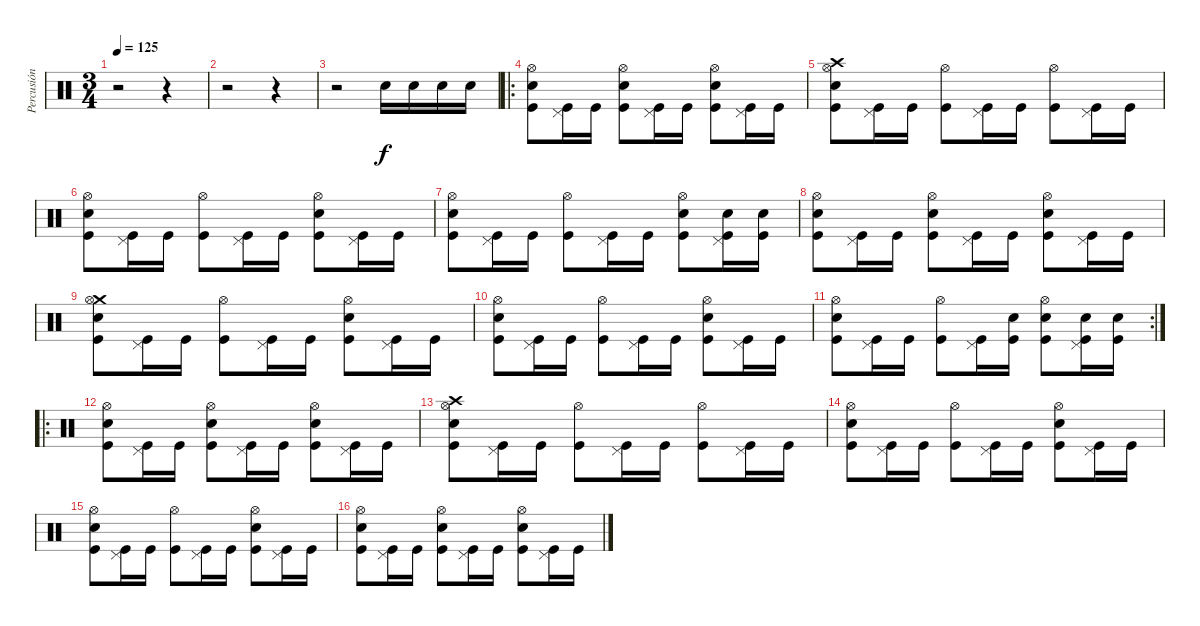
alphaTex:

\track ("Percusión" "Percusión") {instrument percussion}
\staff {score}
\articulation defaults
\ts (3 4)
\tempo 125
\clef neutral
\ks c
r.2{dy f} r.4 |
r.2 r.4 |
r.2 "Electric Snare (hit)".16 "Electric Snare (hit)".16 "Electric Snare (hit)".16 "Electric Snare (hit)".16 |
\ro
("Electric Snare (hit)" "Kick (hit)" "Hi-Hat (open)").8 ("Kick (hit)" "Pedal Hi-Hat (hit)").16 "Kick (hit)".16 ("Electric Snare (hit)" "Kick (hit)" "Hi-Hat (open)").8 ("Kick (hit)" "Pedal Hi-Hat (hit)").16 "Kick (hit)".16 ("Electric Snare (hit)" "Kick (hit)" "Hi-Hat (open)").8 ("Kick (hit)" "Pedal Hi-Hat (hit)").16 "Kick (hit)".16 |
("Crash high (hit)" "Electric Snare (hit)" "Kick (hit)" "Hi-Hat (open)").8 ("Kick (hit)" "Pedal Hi-Hat (hit)").16 "Kick (hit)".16 ("Kick (hit)" "Hi-Hat (open)").8 ("Kick (hit)" "Pedal Hi-Hat (hit)").16 "Kick (hit)".16 ("Kick (hit)" "Hi-Hat (open)").8 ("Kick (hit)" "Pedal Hi-Hat (hit)").16 "Kick (hit)".16 |
("Electric Snare (hit)" "Kick (hit)" "Hi-Hat (open)").8 ("Kick (hit)" "Pedal Hi-Hat (hit)").16 "Kick (hit)".16 ("Kick (hit)" "Hi-Hat (open)").8 ("Kick (hit)" "Pedal Hi-Hat (hit)").16 "Kick (hit)".16 ("Electric Snare (hit)" "Kick (hit)" "Hi-Hat (open)").8 ("Kick (hit)" "Pedal Hi-Hat (hit)").16 "Kick (hit)".16 |
("Electric Snare (hit)" "Kick (hit)" "Hi-Hat (open)").8 ("Kick (hit)" "Pedal Hi-Hat (hit)").16 "Kick (hit)".16 ("Kick (hit)" "Hi-Hat (open)").8 ("Kick (hit)" "Pedal Hi-Hat (hit)").16 "Kick (hit)".16 ("Electric Snare (hit)" "Kick (hit)" "Hi-Hat (open)").8 ("Electric Snare (hit)" "Kick (hit)" "Pedal Hi-Hat (hit)").16 ("Electric Snare (hit)" "Kick (hit)").16 |
("Electric Snare (hit)" "Kick (hit)" "Hi-Hat (open)").8 ("Kick (hit)" "Pedal Hi-Hat (hit)").16 "Kick (hit)".16 ("Electric Snare (hit)" "Kick (hit)" "Hi-Hat (open)").8 ("Kick (hit)" "Pedal Hi-Hat (hit)").16 "Kick (hit)".16 ("Electric Snare (hit)" "Kick (hit)" "Hi-Hat (open)").8 ("Kick (hit)" "Pedal Hi-Hat (hit)").16 "Kick (hit)".16 |
("Crash medium (hit)" "Electric Snare (hit)" "Kick (hit)" "Hi-Hat (open)").8 ("Kick (hit)" "Pedal Hi-Hat (hit)").16 "Kick (hit)".16 ("Kick (hit)" "Hi-Hat (open)").8 ("Kick (hit)" "Pedal Hi-Hat (hit)").16 "Kick (hit)".16 ("Electric Snare (hit)" "Kick (hit)" "Hi-Hat (open)").8 ("Kick (hit)" "Pedal Hi-Hat (hit)").16 "Kick (hit)".16 |
("Electric Snare (hit)" "Kick (hit)" "Hi-Hat (open)").8 ("Kick (hit)" "Pedal Hi-Hat (hit)").16 "Kick (hit)".16 ("Kick (hit)" "Hi-Hat (open)").8 ("Kick (hit)" "Pedal Hi-Hat (hit)").16 "Kick (hit)".16 ("Electric Snare (hit)" "Kick (hit)" "Hi-Hat (open)").8 ("Kick (hit)" "Pedal Hi-Hat (hit)").16 "Kick (hit)".16 |
\rc 2
("Electric Snare (hit)" "Kick (hit)" "Hi-Hat (open)").8 ("Kick (hit)" "Pedal Hi-Hat (hit)").16 "Kick (hit)".16 ("Kick (hit)" "Hi-Hat (open)").8 ("Kick (hit)" "Pedal Hi-Hat (hit)").16 ("Electric Snare (hit)" "Kick (hit)").16 ("Electric Snare (hit)" "Kick (hit)" "Hi-Hat (open)").8 ("Electric Snare (hit)" "Kick (hit)" "Pedal Hi-Hat (hit)").16 ("Electric Snare (hit)" "Kick (hit)").16 |
\ro
("Electric Snare (hit)" "Kick (hit)" "Hi-Hat (open)").8 ("Kick (hit)" "Pedal Hi-Hat (hit)").16 "Kick (hit)".16 ("Electric Snare (hit)" "Kick (hit)" "Hi-Hat (open)").8 ("Kick (hit)" "Pedal Hi-Hat (hit)").16 "Kick (hit)".16 ("Electric Snare (hit)" "Kick (hit)" "Hi-Hat (open)").8 ("Kick (hit)" "Pedal Hi-Hat (hit)").16 "Kick (hit)".16 |
("Crash high (hit)" "Electric Snare (hit)" "Kick (hit)" "Hi-Hat (open)").8 ("Kick (hit)" "Pedal Hi-Hat (hit)").16 "Kick (hit)".16 ("Kick (hit)" "Hi-Hat (open)").8 ("Kick (hit)" "Pedal Hi-Hat (hit)").16 "Kick (hit)".16 ("Kick (hit)" "Hi-Hat (open)").8 ("Kick (hit)" "Pedal Hi-Hat (hit)").16 "Kick (hit)".16 |
("Electric Snare (hit)" "Kick (hit)" "Hi-Hat (open)").8 ("Kick (hit)" "Pedal Hi-Hat (hit)").16 "Kick (hit)".16 ("Kick (hit)" "Hi-Hat (open)").8 ("Kick (hit)" "Pedal Hi-Hat (hit)").16 "Kick (hit)".16 ("Electric Snare (hit)" "Kick (hit)" "Hi-Hat (open)").8 ("Kick (hit)" "Pedal Hi-Hat (hit)").16 "Kick (hit)".16 |
("Electric Snare (hit)" "Kick (hit)" "Hi-Hat (open)").8 ("Kick (hit)" "Pedal Hi-Hat (hit)").16 "Kick (hit)".16 ("Kick (hit)" "Hi-Hat (open)").8 ("Kick (hit)" "Pedal Hi-Hat (hit)").16 "Kick (hit)".16 ("Electric Snare (hit)" "Kick (hit)" "Hi-Hat (open)").8 ("Kick (hit)" "Pedal Hi-Hat (hit)").16 "Kick (hit)".16 |
("Electric Snare (hit)" "Kick (hit)" "Hi-Hat (open)").8 ("Kick (hit)" "Pedal Hi-Hat (hit)").16 "Kick (hit)".16 ("Electric Snare (hit)" "Kick (hit)" "Hi-Hat (open)").8 ("Kick (hit)" "Pedal Hi-Hat (hit)").16 "Kick (hit)".16 ("Electric Snare (hit)" "Kick (hit)" "Hi-Hat (open)").8 ("Kick (hit)" "Pedal Hi-Hat (hit)").16 "Kick (hit)".16
